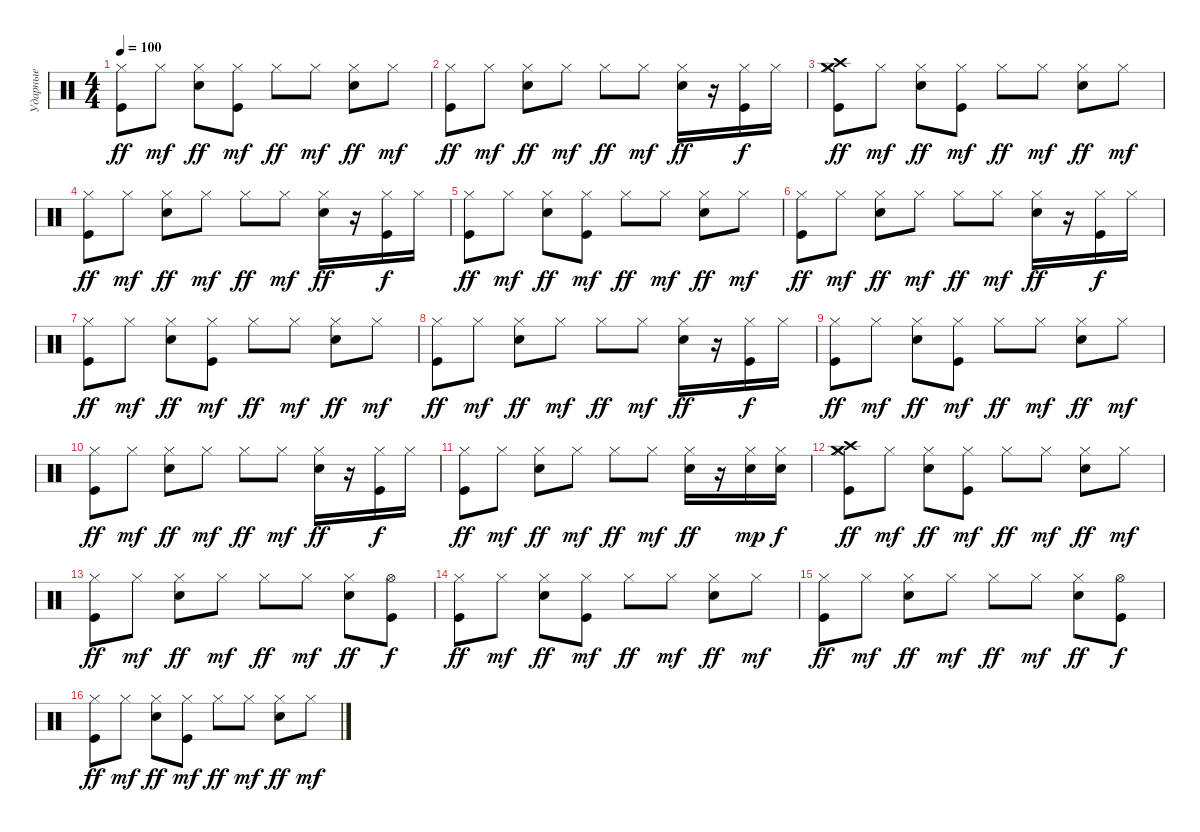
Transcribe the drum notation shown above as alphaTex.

\track ("Ударные" "Ударные") {instrument percussion}
\staff {score}
\articulation defaults
\ts (4 4)
\tempo 100
\clef neutral
\ks c
("Kick (hit)" "Hi-Hat (closed)").8{dy ff} "Hi-Hat (closed)".8{dy mf} ("Electric Snare (hit)" "Hi-Hat (closed)").8{dy ff} ("Kick (hit)" "Hi-Hat (closed)").8{dy mf} "Hi-Hat (closed)".8{dy ff} "Hi-Hat (closed)".8{dy mf} ("Electric Snare (hit)" "Hi-Hat (closed)").8{dy ff} "Hi-Hat (closed)".8{dy mf} |
("Kick (hit)" "Hi-Hat (closed)").8{dy ff} "Hi-Hat (closed)".8{dy mf} ("Electric Snare (hit)" "Hi-Hat (closed)").8{dy ff} "Hi-Hat (closed)".8{dy mf} "Hi-Hat (closed)".8{dy ff} "Hi-Hat (closed)".8{dy mf} ("Electric Snare (hit)" "Hi-Hat (closed)").16{dy ff} r.16 ("Kick (hit)" "Hi-Hat (closed)").16{dy f} "Hi-Hat (closed)".16 |
("Kick (hit)" "Hi-Hat (closed)" "Crash high (hit)" "Crash medium (hit)").8{dy ff} "Hi-Hat (closed)".8{dy mf} ("Electric Snare (hit)" "Hi-Hat (closed)").8{dy ff} ("Kick (hit)" "Hi-Hat (closed)").8{dy mf} "Hi-Hat (closed)".8{dy ff} "Hi-Hat (closed)".8{dy mf} ("Electric Snare (hit)" "Hi-Hat (closed)").8{dy ff} "Hi-Hat (closed)".8{dy mf} |
("Kick (hit)" "Hi-Hat (closed)").8{dy ff} "Hi-Hat (closed)".8{dy mf} ("Electric Snare (hit)" "Hi-Hat (closed)").8{dy ff} "Hi-Hat (closed)".8{dy mf} "Hi-Hat (closed)".8{dy ff} "Hi-Hat (closed)".8{dy mf} ("Electric Snare (hit)" "Hi-Hat (closed)").16{dy ff} r.16 ("Kick (hit)" "Hi-Hat (closed)").16{dy f} "Hi-Hat (closed)".16 |
("Kick (hit)" "Hi-Hat (closed)").8{dy ff} "Hi-Hat (closed)".8{dy mf} ("Electric Snare (hit)" "Hi-Hat (closed)").8{dy ff} ("Kick (hit)" "Hi-Hat (closed)").8{dy mf} "Hi-Hat (closed)".8{dy ff} "Hi-Hat (closed)".8{dy mf} ("Electric Snare (hit)" "Hi-Hat (closed)").8{dy ff} "Hi-Hat (closed)".8{dy mf} |
("Kick (hit)" "Hi-Hat (closed)").8{dy ff} "Hi-Hat (closed)".8{dy mf} ("Electric Snare (hit)" "Hi-Hat (closed)").8{dy ff} "Hi-Hat (closed)".8{dy mf} "Hi-Hat (closed)".8{dy ff} "Hi-Hat (closed)".8{dy mf} ("Electric Snare (hit)" "Hi-Hat (closed)").16{dy ff} r.16 ("Kick (hit)" "Hi-Hat (closed)").16{dy f} "Hi-Hat (closed)".16 |
("Kick (hit)" "Hi-Hat (closed)").8{dy ff} "Hi-Hat (closed)".8{dy mf} ("Electric Snare (hit)" "Hi-Hat (closed)").8{dy ff} ("Kick (hit)" "Hi-Hat (closed)").8{dy mf} "Hi-Hat (closed)".8{dy ff} "Hi-Hat (closed)".8{dy mf} ("Electric Snare (hit)" "Hi-Hat (closed)").8{dy ff} "Hi-Hat (closed)".8{dy mf} |
("Kick (hit)" "Hi-Hat (closed)").8{dy ff} "Hi-Hat (closed)".8{dy mf} ("Electric Snare (hit)" "Hi-Hat (closed)").8{dy ff} "Hi-Hat (closed)".8{dy mf} "Hi-Hat (closed)".8{dy ff} "Hi-Hat (closed)".8{dy mf} ("Electric Snare (hit)" "Hi-Hat (closed)").16{dy ff} r.16 ("Kick (hit)" "Hi-Hat (closed)").16{dy f} "Hi-Hat (closed)".16 |
("Kick (hit)" "Hi-Hat (closed)").8{dy ff} "Hi-Hat (closed)".8{dy mf} ("Electric Snare (hit)" "Hi-Hat (closed)").8{dy ff} ("Kick (hit)" "Hi-Hat (closed)").8{dy mf} "Hi-Hat (closed)".8{dy ff} "Hi-Hat (closed)".8{dy mf} ("Electric Snare (hit)" "Hi-Hat (closed)").8{dy ff} "Hi-Hat (closed)".8{dy mf} |
("Kick (hit)" "Hi-Hat (closed)").8{dy ff} "Hi-Hat (closed)".8{dy mf} ("Electric Snare (hit)" "Hi-Hat (closed)").8{dy ff} "Hi-Hat (closed)".8{dy mf} "Hi-Hat (closed)".8{dy ff} "Hi-Hat (closed)".8{dy mf} ("Electric Snare (hit)" "Hi-Hat (closed)").16{dy ff} r.16 ("Kick (hit)" "Hi-Hat (closed)").16{dy f} "Hi-Hat (closed)".16 |
("Kick (hit)" "Hi-Hat (closed)").8{dy ff} "Hi-Hat (closed)".8{dy mf} ("Electric Snare (hit)" "Hi-Hat (closed)").8{dy ff} "Hi-Hat (closed)".8{dy mf} "Hi-Hat (closed)".8{dy ff} "Hi-Hat (closed)".8{dy mf} ("Electric Snare (hit)" "Hi-Hat (closed)").16{dy ff} r.16 ("Electric Snare (hit)" "Hi-Hat (closed)").16{dy mp} ("Electric Snare (hit)" "Hi-Hat (closed)").16{dy f} |
("Kick (hit)" "Hi-Hat (closed)" "Crash high (hit)" "Crash medium (hit)").8{dy ff} "Hi-Hat (closed)".8{dy mf} ("Electric Snare (hit)" "Hi-Hat (closed)").8{dy ff} ("Kick (hit)" "Hi-Hat (closed)").8{dy mf} "Hi-Hat (closed)".8{dy ff} "Hi-Hat (closed)".8{dy mf} ("Electric Snare (hit)" "Hi-Hat (closed)").8{dy ff} "Hi-Hat (closed)".8{dy mf} |
("Kick (hit)" "Hi-Hat (closed)").8{dy ff} "Hi-Hat (closed)".8{dy mf} ("Electric Snare (hit)" "Hi-Hat (closed)").8{dy ff} "Hi-Hat (closed)".8{dy mf} "Hi-Hat (closed)".8{dy ff} "Hi-Hat (closed)".8{dy mf} ("Electric Snare (hit)" "Hi-Hat (closed)").8{dy ff} ("Kick (hit)" "Hi-Hat (open)").8{dy f} |
("Kick (hit)" "Hi-Hat (closed)").8{dy ff} "Hi-Hat (closed)".8{dy mf} ("Electric Snare (hit)" "Hi-Hat (closed)").8{dy ff} ("Kick (hit)" "Hi-Hat (closed)").8{dy mf} "Hi-Hat (closed)".8{dy ff} "Hi-Hat (closed)".8{dy mf} ("Electric Snare (hit)" "Hi-Hat (closed)").8{dy ff} "Hi-Hat (closed)".8{dy mf} |
("Kick (hit)" "Hi-Hat (closed)").8{dy ff} "Hi-Hat (closed)".8{dy mf} ("Electric Snare (hit)" "Hi-Hat (closed)").8{dy ff} "Hi-Hat (closed)".8{dy mf} "Hi-Hat (closed)".8{dy ff} "Hi-Hat (closed)".8{dy mf} ("Electric Snare (hit)" "Hi-Hat (closed)").8{dy ff} ("Kick (hit)" "Hi-Hat (open)").8{dy f} |
("Kick (hit)" "Hi-Hat (closed)").8{dy ff} "Hi-Hat (closed)".8{dy mf} ("Electric Snare (hit)" "Hi-Hat (closed)").8{dy ff} ("Kick (hit)" "Hi-Hat (closed)").8{dy mf} "Hi-Hat (closed)".8{dy ff} "Hi-Hat (closed)".8{dy mf} ("Electric Snare (hit)" "Hi-Hat (closed)").8{dy ff} "Hi-Hat (closed)".8{dy mf}
